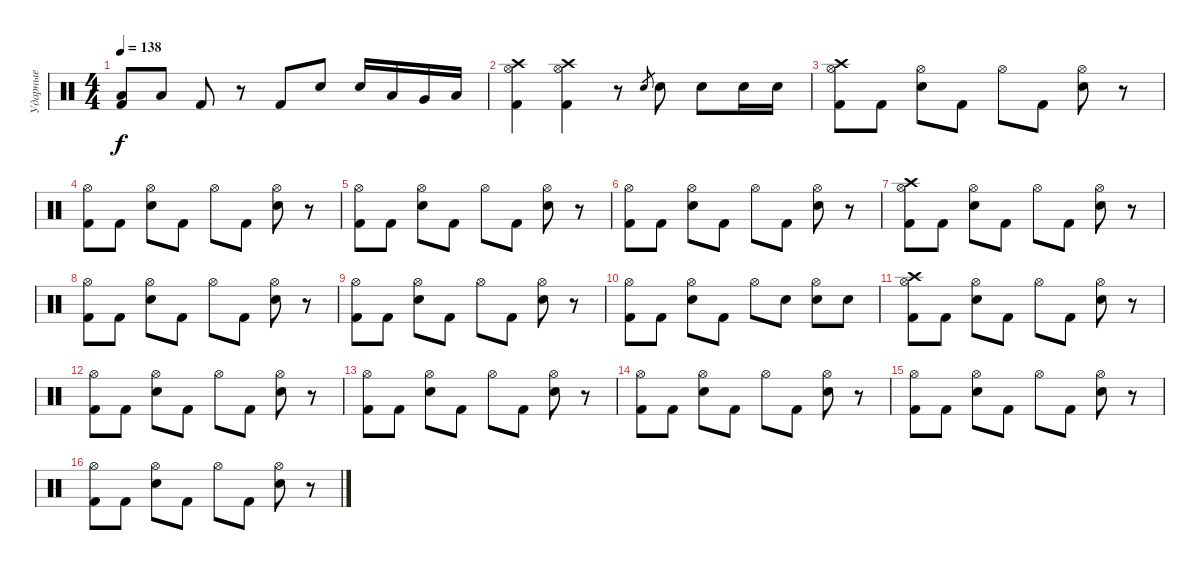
\track ("Ударные" "Ударные") {instrument percussion}
\staff {score}
\articulation defaults
\ts (4 4)
\tempo 138
\clef neutral
\ks c
("Low Tom (hit)" "Kick (hit) 2").8{dy f} "Low Tom (hit)".8 "Kick (hit) 2".8 r.8 "Kick (hit) 2".8 "Electric Snare (hit)".8 "Electric Snare (hit)".16 "Low Tom (hit)".16 "Very Low Tom (hit)".16 "Low Floor Tom (hit)".16 |
("Crash high (hit)" "Hi-Hat (open)" "Kick (hit) 2").4 ("Crash high (hit)" "Hi-Hat (open)" "Kick (hit) 2").4 r.8 "Electric Snare (hit)".8{gr} "Electric Snare (hit)".8 "Electric Snare (hit)".8 "Electric Snare (hit)".16 "Electric Snare (hit)".16 |
("Crash high (hit)" "Hi-Hat (open)" "Kick (hit) 2").8 "Kick (hit) 2".8 ("Electric Snare (hit)" "Hi-Hat (open)").8 "Kick (hit) 2".8 "Hi-Hat (open)".8 "Kick (hit) 2".8 ("Electric Snare (hit)" "Hi-Hat (open)").8 r.8 |
("Hi-Hat (open)" "Kick (hit) 2").8 "Kick (hit) 2".8 ("Electric Snare (hit)" "Hi-Hat (open)").8 "Kick (hit) 2".8 "Hi-Hat (open)".8 "Kick (hit) 2".8 ("Electric Snare (hit)" "Hi-Hat (open)").8 r.8 |
("Hi-Hat (open)" "Kick (hit) 2").8 "Kick (hit) 2".8 ("Electric Snare (hit)" "Hi-Hat (open)").8 "Kick (hit) 2".8 "Hi-Hat (open)".8 "Kick (hit) 2".8 ("Electric Snare (hit)" "Hi-Hat (open)").8 r.8 |
("Hi-Hat (open)" "Kick (hit) 2").8 "Kick (hit) 2".8 ("Electric Snare (hit)" "Hi-Hat (open)").8 "Kick (hit) 2".8 "Hi-Hat (open)".8 "Kick (hit) 2".8 ("Electric Snare (hit)" "Hi-Hat (open)").8 r.8 |
("Crash high (hit)" "Hi-Hat (open)" "Kick (hit) 2").8 "Kick (hit) 2".8 ("Electric Snare (hit)" "Hi-Hat (open)").8 "Kick (hit) 2".8 "Hi-Hat (open)".8 "Kick (hit) 2".8 ("Electric Snare (hit)" "Hi-Hat (open)").8 r.8 |
("Hi-Hat (open)" "Kick (hit) 2").8 "Kick (hit) 2".8 ("Electric Snare (hit)" "Hi-Hat (open)").8 "Kick (hit) 2".8 "Hi-Hat (open)".8 "Kick (hit) 2".8 ("Electric Snare (hit)" "Hi-Hat (open)").8 r.8 |
("Hi-Hat (open)" "Kick (hit) 2").8 "Kick (hit) 2".8 ("Electric Snare (hit)" "Hi-Hat (open)").8 "Kick (hit) 2".8 "Hi-Hat (open)".8 "Kick (hit) 2".8 ("Electric Snare (hit)" "Hi-Hat (open)").8 r.8 |
("Hi-Hat (open)" "Kick (hit) 2").8 "Kick (hit) 2".8 ("Electric Snare (hit)" "Hi-Hat (open)").8 "Kick (hit) 2".8 "Hi-Hat (open)".8 "Electric Snare (hit)".8 ("Electric Snare (hit)" "Hi-Hat (open)").8 "Electric Snare (hit)".8 |
("Crash high (hit)" "Hi-Hat (open)" "Kick (hit) 2").8 "Kick (hit) 2".8 ("Electric Snare (hit)" "Hi-Hat (open)").8 "Kick (hit) 2".8 "Hi-Hat (open)".8 "Kick (hit) 2".8 ("Electric Snare (hit)" "Hi-Hat (open)").8 r.8 |
("Hi-Hat (open)" "Kick (hit) 2").8 "Kick (hit) 2".8 ("Electric Snare (hit)" "Hi-Hat (open)").8 "Kick (hit) 2".8 "Hi-Hat (open)".8 "Kick (hit) 2".8 ("Electric Snare (hit)" "Hi-Hat (open)").8 r.8 |
("Hi-Hat (open)" "Kick (hit) 2").8 "Kick (hit) 2".8 ("Electric Snare (hit)" "Hi-Hat (open)").8 "Kick (hit) 2".8 "Hi-Hat (open)".8 "Kick (hit) 2".8 ("Electric Snare (hit)" "Hi-Hat (open)").8 r.8 |
("Hi-Hat (open)" "Kick (hit) 2").8 "Kick (hit) 2".8 ("Electric Snare (hit)" "Hi-Hat (open)").8 "Kick (hit) 2".8 "Hi-Hat (open)".8 "Kick (hit) 2".8 ("Electric Snare (hit)" "Hi-Hat (open)").8 r.8 |
("Hi-Hat (open)" "Kick (hit) 2").8 "Kick (hit) 2".8 ("Electric Snare (hit)" "Hi-Hat (open)").8 "Kick (hit) 2".8 "Hi-Hat (open)".8 "Kick (hit) 2".8 ("Electric Snare (hit)" "Hi-Hat (open)").8 r.8 |
("Hi-Hat (open)" "Kick (hit) 2").8 "Kick (hit) 2".8 ("Electric Snare (hit)" "Hi-Hat (open)").8 "Kick (hit) 2".8 "Hi-Hat (open)".8 "Kick (hit) 2".8 ("Electric Snare (hit)" "Hi-Hat (open)").8 r.8
